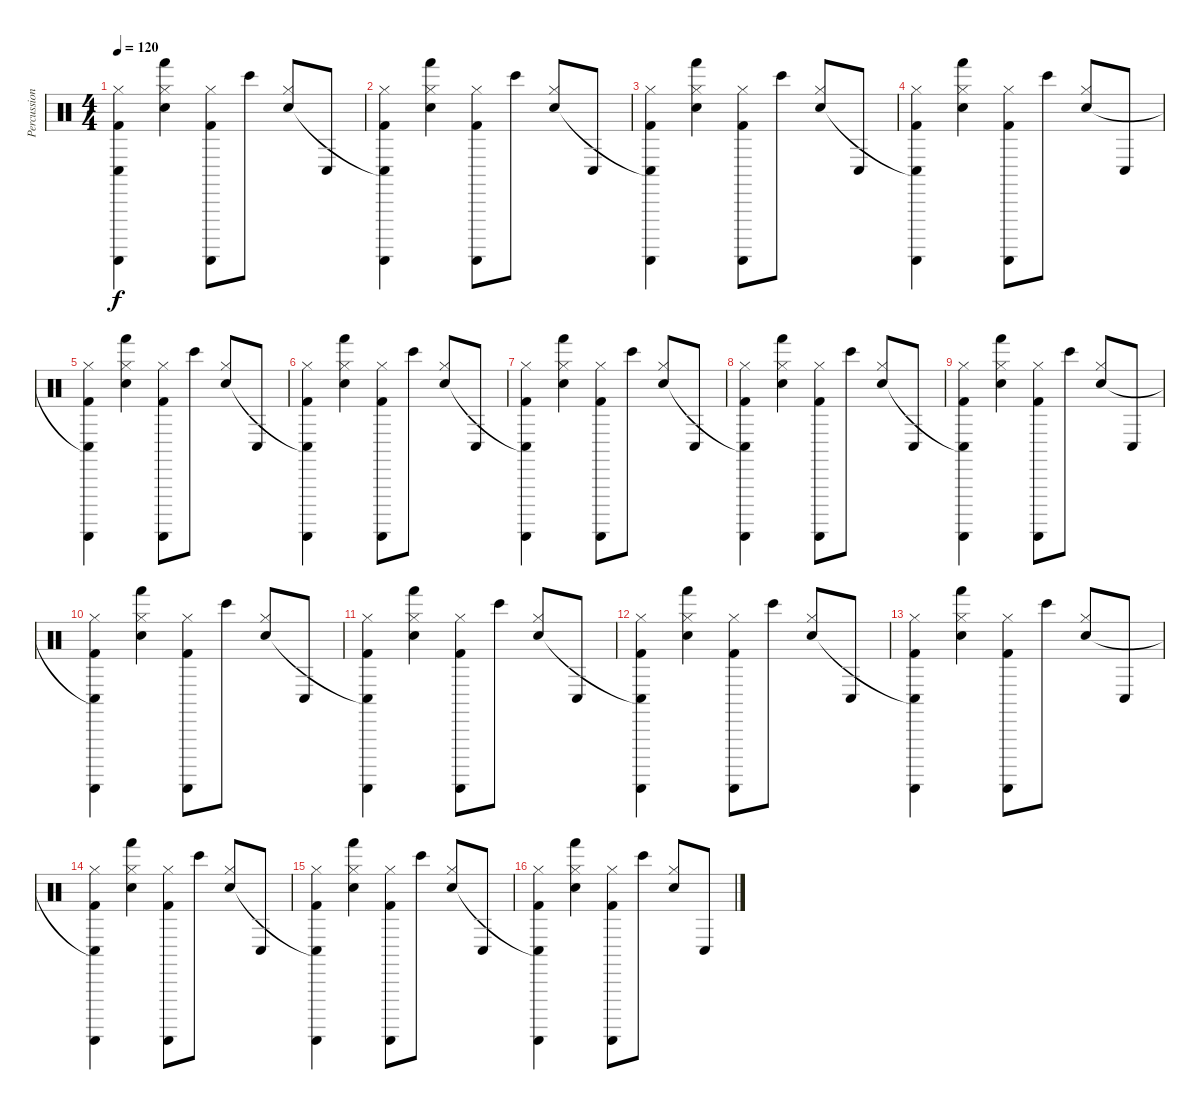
\track ("Percussions" "Percussion") {instrument percussion}
\staff {score}
\articulation defaults
\ts (4 4)
\tempo 120
\clef neutral
\ks c
("Hi-Hat (closed)" "Conga low (hit)" "Guiro (scrap-return)" "Kick (hit) 2").4{dy f} ("Hi-Hat (closed)" "Hand (hit)" "Snare (hit) 2").4 ("Hi-Hat (closed)" "Guiro (scrap-return)" "Kick (hit) 2").8 "Bongo High (hit)".8 ("Hi-Hat (closed)" "Snare (hit) 2").8 "Conga low (hit)".8 |
("Hi-Hat (closed)" "Conga low (hit)"{t} "Guiro (scrap-return)" "Kick (hit) 2").4 ("Hi-Hat (closed)" "Hand (hit)" "Snare (hit) 2").4 ("Hi-Hat (closed)" "Guiro (scrap-return)" "Kick (hit) 2").8 "Bongo High (hit)".8 ("Hi-Hat (closed)" "Snare (hit) 2").8 "Conga low (hit)".8 |
("Hi-Hat (closed)" "Conga low (hit)"{t} "Guiro (scrap-return)" "Kick (hit) 2").4 ("Hi-Hat (closed)" "Hand (hit)" "Snare (hit) 2").4 ("Hi-Hat (closed)" "Guiro (scrap-return)" "Kick (hit) 2").8 "Bongo High (hit)".8 ("Hi-Hat (closed)" "Snare (hit) 2").8 "Conga low (hit)".8 |
("Hi-Hat (closed)" "Conga low (hit)"{t} "Guiro (scrap-return)" "Kick (hit) 2").4 ("Hi-Hat (closed)" "Hand (hit)" "Snare (hit) 2").4 ("Hi-Hat (closed)" "Guiro (scrap-return)" "Kick (hit) 2").8 "Bongo High (hit)".8 ("Hi-Hat (closed)" "Snare (hit) 2").8 "Conga low (hit)".8 |
("Hi-Hat (closed)" "Conga low (hit)"{t} "Guiro (scrap-return)" "Kick (hit) 2").4 ("Hi-Hat (closed)" "Hand (hit)" "Snare (hit) 2").4 ("Hi-Hat (closed)" "Guiro (scrap-return)" "Kick (hit) 2").8 "Bongo High (hit)".8 ("Hi-Hat (closed)" "Snare (hit) 2").8 "Conga low (hit)".8 |
("Hi-Hat (closed)" "Conga low (hit)"{t} "Guiro (scrap-return)" "Kick (hit) 2").4 ("Hi-Hat (closed)" "Hand (hit)" "Snare (hit) 2").4 ("Hi-Hat (closed)" "Guiro (scrap-return)" "Kick (hit) 2").8 "Bongo High (hit)".8 ("Hi-Hat (closed)" "Snare (hit) 2").8 "Conga low (hit)".8 |
("Hi-Hat (closed)" "Conga low (hit)"{t} "Guiro (scrap-return)" "Kick (hit) 2").4 ("Hi-Hat (closed)" "Hand (hit)" "Snare (hit) 2").4 ("Hi-Hat (closed)" "Guiro (scrap-return)" "Kick (hit) 2").8 "Bongo High (hit)".8 ("Hi-Hat (closed)" "Snare (hit) 2").8 "Conga low (hit)".8 |
("Hi-Hat (closed)" "Conga low (hit)"{t} "Guiro (scrap-return)" "Kick (hit) 2").4 ("Hi-Hat (closed)" "Hand (hit)" "Snare (hit) 2").4 ("Hi-Hat (closed)" "Guiro (scrap-return)" "Kick (hit) 2").8 "Bongo High (hit)".8 ("Hi-Hat (closed)" "Snare (hit) 2").8 "Conga low (hit)".8 |
("Hi-Hat (closed)" "Conga low (hit)"{t} "Guiro (scrap-return)" "Kick (hit) 2").4 ("Hi-Hat (closed)" "Hand (hit)" "Snare (hit) 2").4 ("Hi-Hat (closed)" "Guiro (scrap-return)" "Kick (hit) 2").8 "Bongo High (hit)".8 ("Hi-Hat (closed)" "Snare (hit) 2").8 "Conga low (hit)".8 |
("Hi-Hat (closed)" "Conga low (hit)"{t} "Guiro (scrap-return)" "Kick (hit) 2").4 ("Hi-Hat (closed)" "Hand (hit)" "Snare (hit) 2").4 ("Hi-Hat (closed)" "Guiro (scrap-return)" "Kick (hit) 2").8 "Bongo High (hit)".8 ("Hi-Hat (closed)" "Snare (hit) 2").8 "Conga low (hit)".8 |
("Hi-Hat (closed)" "Conga low (hit)"{t} "Guiro (scrap-return)" "Kick (hit) 2").4 ("Hi-Hat (closed)" "Hand (hit)" "Snare (hit) 2").4 ("Hi-Hat (closed)" "Guiro (scrap-return)" "Kick (hit) 2").8 "Bongo High (hit)".8 ("Hi-Hat (closed)" "Snare (hit) 2").8 "Conga low (hit)".8 |
("Hi-Hat (closed)" "Conga low (hit)"{t} "Guiro (scrap-return)" "Kick (hit) 2").4 ("Hi-Hat (closed)" "Hand (hit)" "Snare (hit) 2").4 ("Hi-Hat (closed)" "Guiro (scrap-return)" "Kick (hit) 2").8 "Bongo High (hit)".8 ("Hi-Hat (closed)" "Snare (hit) 2").8 "Conga low (hit)".8 |
("Hi-Hat (closed)" "Conga low (hit)"{t} "Guiro (scrap-return)" "Kick (hit) 2").4 ("Hi-Hat (closed)" "Hand (hit)" "Snare (hit) 2").4 ("Hi-Hat (closed)" "Guiro (scrap-return)" "Kick (hit) 2").8 "Bongo High (hit)".8 ("Hi-Hat (closed)" "Snare (hit) 2").8 "Conga low (hit)".8 |
("Hi-Hat (closed)" "Conga low (hit)"{t} "Guiro (scrap-return)" "Kick (hit) 2").4 ("Hi-Hat (closed)" "Hand (hit)" "Snare (hit) 2").4 ("Hi-Hat (closed)" "Guiro (scrap-return)" "Kick (hit) 2").8 "Bongo High (hit)".8 ("Hi-Hat (closed)" "Snare (hit) 2").8 "Conga low (hit)".8 |
("Hi-Hat (closed)" "Conga low (hit)"{t} "Guiro (scrap-return)" "Kick (hit) 2").4 ("Hi-Hat (closed)" "Hand (hit)" "Snare (hit) 2").4 ("Hi-Hat (closed)" "Guiro (scrap-return)" "Kick (hit) 2").8 "Bongo High (hit)".8 ("Hi-Hat (closed)" "Snare (hit) 2").8 "Conga low (hit)".8 |
("Hi-Hat (closed)" "Conga low (hit)"{t} "Guiro (scrap-return)" "Kick (hit) 2").4 ("Hi-Hat (closed)" "Hand (hit)" "Snare (hit) 2").4 ("Hi-Hat (closed)" "Guiro (scrap-return)" "Kick (hit) 2").8 "Bongo High (hit)".8 ("Hi-Hat (closed)" "Snare (hit) 2").8 "Conga low (hit)".8
